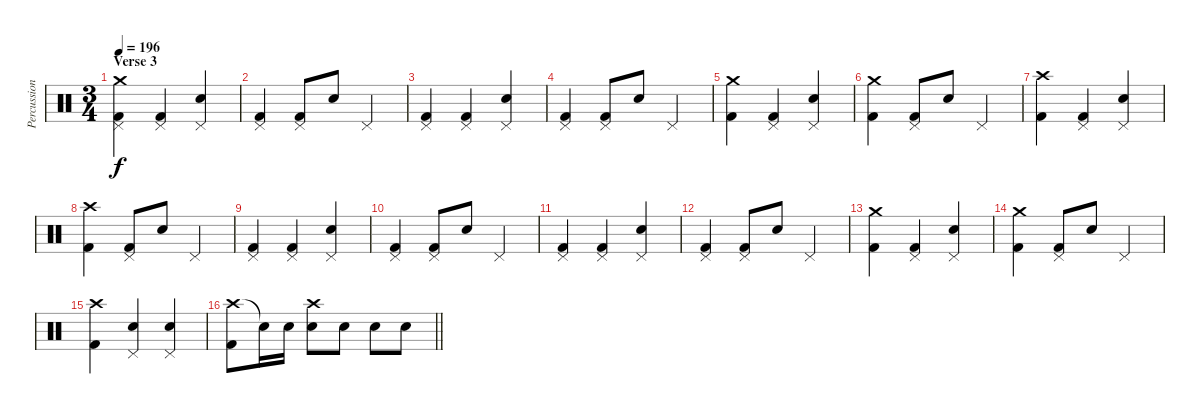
\track ("Percussion" "Percussion") {instrument percussion}
\staff {score}
\articulation defaults
\ts (3 4)
\section ("" "Verse 3")
\tempo 196
\clef neutral
\ks c
("Crash medium (hit)" "Pedal Hi-Hat (hit)" "Kick (hit) 2").4{dy f} ("Pedal Hi-Hat (hit)" "Kick (hit) 2").4 ("Pedal Hi-Hat (hit)" "Electric Snare (hit)").4 |
("Pedal Hi-Hat (hit)" "Kick (hit) 2").4 ("Pedal Hi-Hat (hit)" "Kick (hit) 2").8 "Electric Snare (hit)".8 "Pedal Hi-Hat (hit)".4 |
("Pedal Hi-Hat (hit)" "Kick (hit) 2").4 ("Pedal Hi-Hat (hit)" "Kick (hit) 2").4 ("Pedal Hi-Hat (hit)" "Electric Snare (hit)").4 |
("Pedal Hi-Hat (hit)" "Kick (hit) 2").4 ("Pedal Hi-Hat (hit)" "Kick (hit) 2").8 "Electric Snare (hit)".8 "Pedal Hi-Hat (hit)".4 |
("Crash medium (hit)" "Kick (hit) 2").4 ("Pedal Hi-Hat (hit)" "Kick (hit) 2").4 ("Pedal Hi-Hat (hit)" "Electric Snare (hit)").4 |
("Crash medium (hit)" "Kick (hit) 2").4 ("Pedal Hi-Hat (hit)" "Kick (hit) 2").8 "Electric Snare (hit)".8 "Pedal Hi-Hat (hit)".4 |
("Crash high (hit)" "Kick (hit) 2").4 ("Pedal Hi-Hat (hit)" "Kick (hit) 2").4 ("Pedal Hi-Hat (hit)" "Electric Snare (hit)").4 |
("Crash high (hit)" "Kick (hit) 2").4 ("Pedal Hi-Hat (hit)" "Kick (hit) 2").8 "Electric Snare (hit)".8 "Pedal Hi-Hat (hit)".4 |
("Pedal Hi-Hat (hit)" "Kick (hit) 2").4 ("Pedal Hi-Hat (hit)" "Kick (hit) 2").4 ("Pedal Hi-Hat (hit)" "Electric Snare (hit)").4 |
("Pedal Hi-Hat (hit)" "Kick (hit) 2").4 ("Pedal Hi-Hat (hit)" "Kick (hit) 2").8 "Electric Snare (hit)".8 "Pedal Hi-Hat (hit)".4 |
("Pedal Hi-Hat (hit)" "Kick (hit) 2").4 ("Pedal Hi-Hat (hit)" "Kick (hit) 2").4 ("Pedal Hi-Hat (hit)" "Electric Snare (hit)").4 |
("Pedal Hi-Hat (hit)" "Kick (hit) 2").4 ("Pedal Hi-Hat (hit)" "Kick (hit) 2").8 "Electric Snare (hit)".8 "Pedal Hi-Hat (hit)".4 |
("Crash medium (hit)" "Kick (hit) 2").4 ("Pedal Hi-Hat (hit)" "Kick (hit) 2").4 ("Pedal Hi-Hat (hit)" "Electric Snare (hit)").4 |
("Crash medium (hit)" "Kick (hit) 2").4 ("Pedal Hi-Hat (hit)" "Kick (hit) 2").8 "Electric Snare (hit)".8 "Pedal Hi-Hat (hit)".4 |
("Crash high (hit)" "Kick (hit) 2").4 ("Pedal Hi-Hat (hit)" "Electric Snare (hit)").4 ("Pedal Hi-Hat (hit)" "Electric Snare (hit)").4 |
\barLineRight lightlight
("Crash high (hit)" "Kick (hit) 2").8 "Snare (hit)"{t}.16 "Electric Snare (hit)".16 ("Crash high (hit)" "Electric Snare (hit)").8 "Electric Snare (hit)".8 "Electric Snare (hit)".8 "Electric Snare (hit)".8
